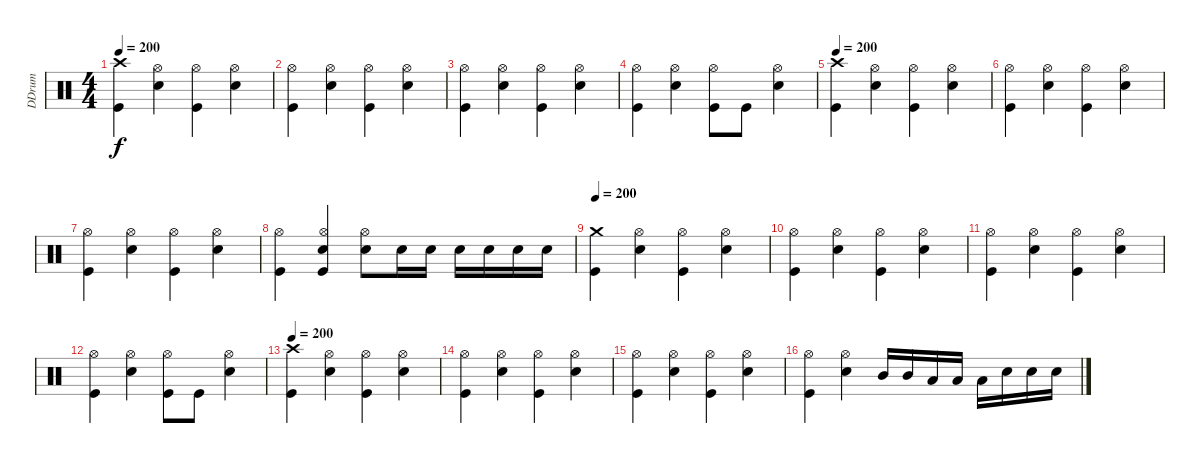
\track ("DDrum" "DDrum") {instrument percussion}
\staff {score}
\articulation defaults
\ts (4 4)
\tempo 200
\clef neutral
\ks c
("Crash high (hit)" "Kick (hit)").4{dy f} ("Hi-Hat (open)" "Electric Snare (hit)").4 ("Hi-Hat (open)" "Kick (hit)").4 ("Hi-Hat (open)" "Electric Snare (hit)").4 |
("Hi-Hat (open)" "Kick (hit)").4 ("Hi-Hat (open)" "Electric Snare (hit)").4 ("Hi-Hat (open)" "Kick (hit)").4 ("Hi-Hat (open)" "Electric Snare (hit)").4 |
("Hi-Hat (open)" "Kick (hit)").4 ("Hi-Hat (open)" "Electric Snare (hit)").4 ("Hi-Hat (open)" "Kick (hit)").4 ("Hi-Hat (open)" "Electric Snare (hit)").4 |
("Hi-Hat (open)" "Kick (hit)").4 ("Hi-Hat (open)" "Electric Snare (hit)").4 ("Hi-Hat (open)" "Kick (hit)").8 "Kick (hit)".8 ("Hi-Hat (open)" "Electric Snare (hit)").4 |
\tempo 200
("Crash high (hit)" "Kick (hit)").4 ("Hi-Hat (open)" "Electric Snare (hit)").4 ("Hi-Hat (open)" "Kick (hit)").4 ("Hi-Hat (open)" "Electric Snare (hit)").4 |
("Hi-Hat (open)" "Kick (hit)").4 ("Hi-Hat (open)" "Electric Snare (hit)").4 ("Hi-Hat (open)" "Kick (hit)").4 ("Hi-Hat (open)" "Electric Snare (hit)").4 |
("Hi-Hat (open)" "Kick (hit)").4 ("Hi-Hat (open)" "Electric Snare (hit)").4 ("Hi-Hat (open)" "Kick (hit)").4 ("Hi-Hat (open)" "Electric Snare (hit)").4 |
("Hi-Hat (open)" "Kick (hit)").4 ("Hi-Hat (open)" "Electric Snare (hit)" "Kick (hit)").4 ("Hi-Hat (open)" "Electric Snare (hit)").8 "Electric Snare (hit)".16 "Electric Snare (hit)".16 "Electric Snare (hit)".16 "Electric Snare (hit)".16 "Electric Snare (hit)".16 "Electric Snare (hit)".16 |
\tempo 200
("Crash medium (hit)" "Kick (hit)").4 ("Hi-Hat (open)" "Electric Snare (hit)").4 ("Hi-Hat (open)" "Kick (hit)").4 ("Hi-Hat (open)" "Electric Snare (hit)").4 |
("Hi-Hat (open)" "Kick (hit)").4 ("Hi-Hat (open)" "Electric Snare (hit)").4 ("Hi-Hat (open)" "Kick (hit)").4 ("Hi-Hat (open)" "Electric Snare (hit)").4 |
("Hi-Hat (open)" "Kick (hit)").4 ("Hi-Hat (open)" "Electric Snare (hit)").4 ("Hi-Hat (open)" "Kick (hit)").4 ("Hi-Hat (open)" "Electric Snare (hit)").4 |
("Hi-Hat (open)" "Kick (hit)").4 ("Hi-Hat (open)" "Electric Snare (hit)").4 ("Hi-Hat (open)" "Kick (hit)").8 "Kick (hit)".8 ("Hi-Hat (open)" "Electric Snare (hit)").4 |
\tempo 200
("Crash high (hit)" "Kick (hit)").4 ("Hi-Hat (open)" "Electric Snare (hit)").4 ("Hi-Hat (open)" "Kick (hit)").4 ("Hi-Hat (open)" "Electric Snare (hit)").4 |
("Hi-Hat (open)" "Kick (hit)").4 ("Hi-Hat (open)" "Electric Snare (hit)").4 ("Hi-Hat (open)" "Kick (hit)").4 ("Hi-Hat (open)" "Electric Snare (hit)").4 |
("Hi-Hat (open)" "Kick (hit)").4 ("Hi-Hat (open)" "Electric Snare (hit)").4 ("Hi-Hat (open)" "Kick (hit)").4 ("Hi-Hat (open)" "Electric Snare (hit)").4 |
("Hi-Hat (open)" "Kick (hit)").4 ("Hi-Hat (open)" "Electric Snare (hit)").4 "Mid Tom (hit)".16 "Mid Tom (hit)".16 "Low Tom (hit)".16 "Low Tom (hit)".16 "Low Tom (hit)".16 "Electric Snare (hit)".16 "Electric Snare (hit)".16 "Electric Snare (hit)".16
